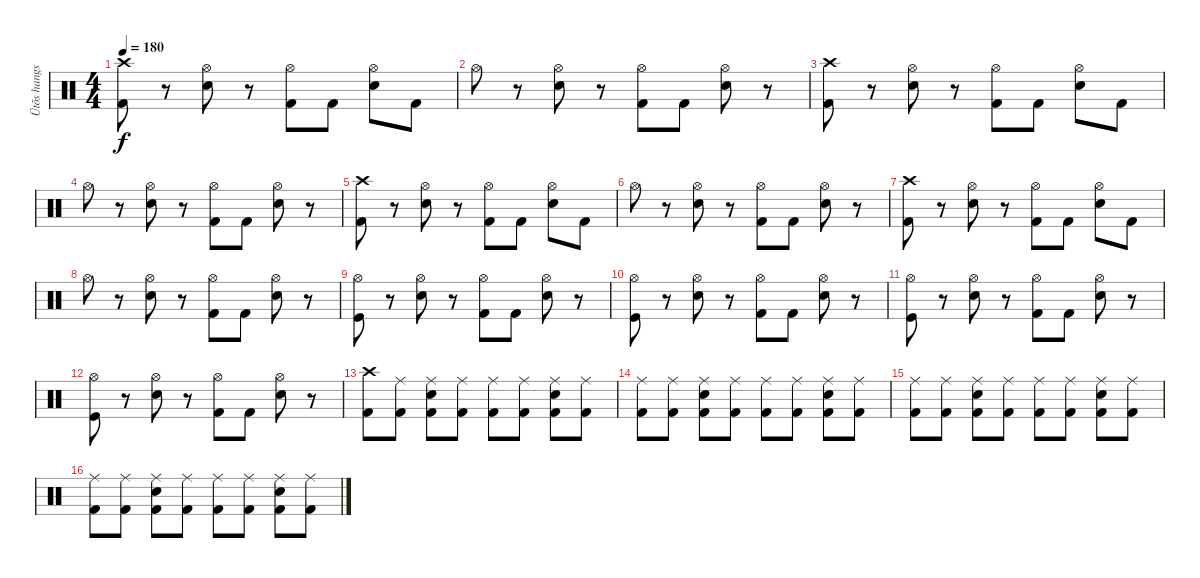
\track ("Ütõs hangszer" "Ütõs hangs") {instrument percussion}
\staff {score}
\articulation defaults
\ts (4 4)
\tempo 180
\clef neutral
\ks c
("Crash high (hit)" "Kick (hit) 2").8{dy f} r.8 ("Hi-Hat (open)" "Electric Snare (hit)").8 r.8 ("Hi-Hat (open)" "Kick (hit) 2").8 "Kick (hit) 2".8 ("Hi-Hat (open)" "Electric Snare (hit)").8 "Kick (hit) 2".8 |
"Hi-Hat (open)".8 r.8 ("Hi-Hat (open)" "Electric Snare (hit)").8 r.8 ("Hi-Hat (open)" "Kick (hit) 2").8 "Kick (hit) 2".8 ("Hi-Hat (open)" "Electric Snare (hit)").8 r.8 |
("Crash high (hit)" "Kick (hit) 2").8 r.8 ("Hi-Hat (open)" "Electric Snare (hit)").8 r.8 ("Hi-Hat (open)" "Kick (hit) 2").8 "Kick (hit) 2".8 ("Hi-Hat (open)" "Electric Snare (hit)").8 "Kick (hit) 2".8 |
"Hi-Hat (open)".8 r.8 ("Hi-Hat (open)" "Electric Snare (hit)").8 r.8 ("Hi-Hat (open)" "Kick (hit) 2").8 "Kick (hit) 2".8 ("Hi-Hat (open)" "Electric Snare (hit)").8 r.8 |
("Crash high (hit)" "Kick (hit) 2").8 r.8 ("Hi-Hat (open)" "Electric Snare (hit)").8 r.8 ("Hi-Hat (open)" "Kick (hit) 2").8 "Kick (hit) 2".8 ("Hi-Hat (open)" "Electric Snare (hit)").8 "Kick (hit) 2".8 |
"Hi-Hat (open)".8 r.8 ("Hi-Hat (open)" "Electric Snare (hit)").8 r.8 ("Hi-Hat (open)" "Kick (hit) 2").8 "Kick (hit) 2".8 ("Hi-Hat (open)" "Electric Snare (hit)").8 r.8 |
("Crash high (hit)" "Kick (hit) 2").8 r.8 ("Hi-Hat (open)" "Electric Snare (hit)").8 r.8 ("Hi-Hat (open)" "Kick (hit) 2").8 "Kick (hit) 2".8 ("Hi-Hat (open)" "Electric Snare (hit)").8 "Kick (hit) 2".8 |
"Hi-Hat (open)".8 r.8 ("Hi-Hat (open)" "Electric Snare (hit)").8 r.8 ("Hi-Hat (open)" "Kick (hit) 2").8 "Kick (hit) 2".8 ("Hi-Hat (open)" "Electric Snare (hit)").8 r.8 |
("Hi-Hat (open)" "Kick (hit)").8 r.8 ("Hi-Hat (open)" "Electric Snare (hit)").8 r.8 ("Hi-Hat (open)" "Kick (hit) 2").8 "Kick (hit) 2".8 ("Hi-Hat (open)" "Electric Snare (hit)").8 r.8 |
("Hi-Hat (open)" "Kick (hit)").8 r.8 ("Hi-Hat (open)" "Electric Snare (hit)").8 r.8 ("Hi-Hat (open)" "Kick (hit) 2").8 "Kick (hit) 2".8 ("Hi-Hat (open)" "Electric Snare (hit)").8 r.8 |
("Hi-Hat (open)" "Kick (hit)").8 r.8 ("Hi-Hat (open)" "Electric Snare (hit)").8 r.8 ("Hi-Hat (open)" "Kick (hit) 2").8 "Kick (hit) 2".8 ("Hi-Hat (open)" "Electric Snare (hit)").8 r.8 |
("Hi-Hat (open)" "Kick (hit)").8 r.8 ("Hi-Hat (open)" "Electric Snare (hit)").8 r.8 ("Hi-Hat (open)" "Kick (hit) 2").8 "Kick (hit) 2".8 ("Hi-Hat (open)" "Electric Snare (hit)").8 r.8 |
("Crash high (hit)" "Kick (hit) 2").8 ("Ride (middle)" "Kick (hit) 2").8 ("Ride (middle)" "Electric Snare (hit)" "Kick (hit) 2").8 ("Ride (middle)" "Kick (hit) 2").8 ("Ride (middle)" "Kick (hit) 2").8 ("Ride (middle)" "Kick (hit) 2").8 ("Ride (middle)" "Electric Snare (hit)" "Kick (hit) 2").8 ("Ride (middle)" "Kick (hit) 2").8 |
("Ride (middle)" "Kick (hit) 2").8 ("Ride (middle)" "Kick (hit) 2").8 ("Ride (middle)" "Electric Snare (hit)" "Kick (hit) 2").8 ("Ride (middle)" "Kick (hit) 2").8 ("Ride (middle)" "Kick (hit) 2").8 ("Ride (middle)" "Kick (hit) 2").8 ("Ride (middle)" "Electric Snare (hit)" "Kick (hit) 2").8 ("Ride (middle)" "Kick (hit) 2").8 |
("Ride (middle)" "Kick (hit) 2").8 ("Ride (middle)" "Kick (hit) 2").8 ("Ride (middle)" "Electric Snare (hit)" "Kick (hit) 2").8 ("Ride (middle)" "Kick (hit) 2").8 ("Ride (middle)" "Kick (hit) 2").8 ("Ride (middle)" "Kick (hit) 2").8 ("Ride (middle)" "Electric Snare (hit)" "Kick (hit) 2").8 ("Ride (middle)" "Kick (hit) 2").8 |
("Ride (middle)" "Kick (hit) 2").8 ("Ride (middle)" "Kick (hit) 2").8 ("Ride (middle)" "Electric Snare (hit)" "Kick (hit) 2").8 ("Ride (middle)" "Kick (hit) 2").8 ("Ride (middle)" "Kick (hit) 2").8 ("Ride (middle)" "Kick (hit) 2").8 ("Ride (middle)" "Electric Snare (hit)" "Kick (hit) 2").8 ("Ride (middle)" "Kick (hit) 2").8
